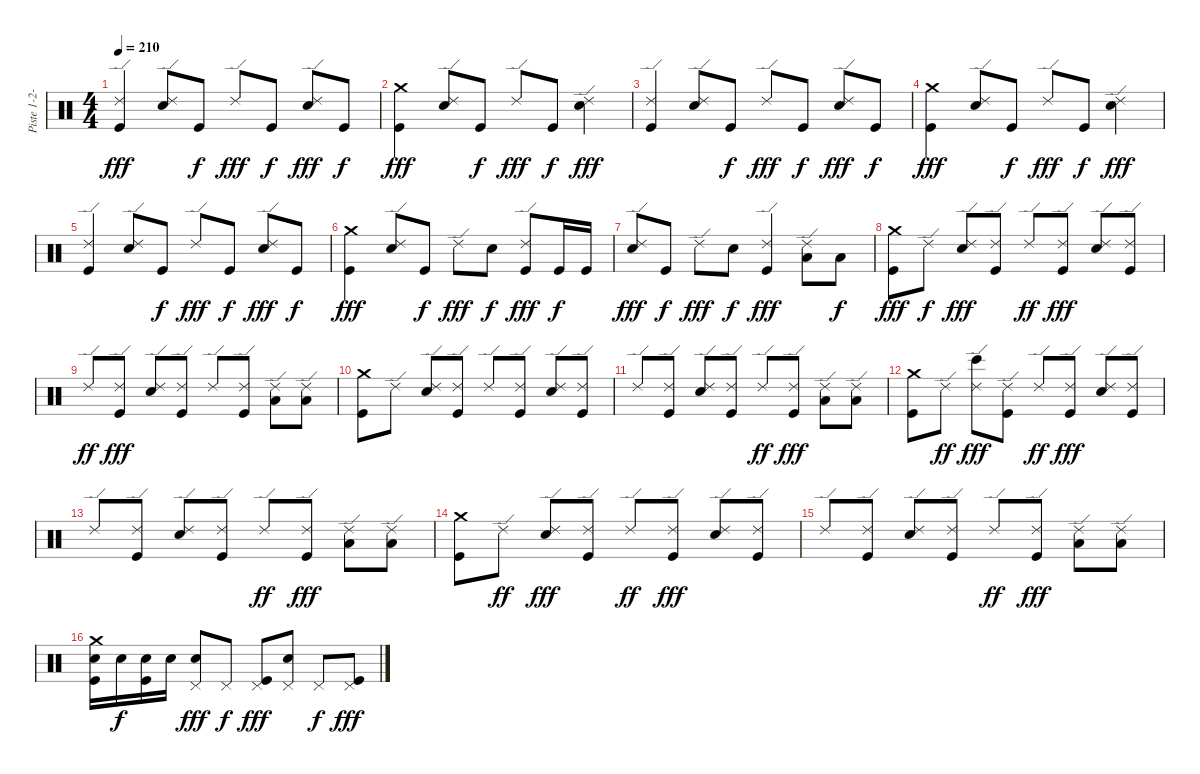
\track ("Piste 1-2-3-4" "Piste 1-2-") {instrument percussion}
\staff {score}
\articulation defaults
\ts (4 4)
\tempo 210
\clef neutral
\ks c
("Ride (edge) 2" "Kick (hit)").4{dy fff} ("Ride (edge) 2" "Snare (hit) 2").8 "Kick (hit)".8{dy f} "Ride (edge) 2".8{dy fff} "Kick (hit)".8{dy f} ("Ride (edge) 2" "Snare (hit) 2").8{dy fff} "Kick (hit)".8{dy f} |
("Crash medium (hit)" "Kick (hit)").4{dy fff} ("Ride (edge) 2" "Snare (hit) 2").8 "Kick (hit)".8{dy f} "Ride (edge) 2".8{dy fff} "Kick (hit)".8{dy f} ("Ride (edge) 2" "Snare (hit) 2").4{dy fff} |
("Ride (edge) 2" "Kick (hit)").4 ("Ride (edge) 2" "Snare (hit) 2").8 "Kick (hit)".8{dy f} "Ride (edge) 2".8{dy fff} "Kick (hit)".8{dy f} ("Ride (edge) 2" "Snare (hit) 2").8{dy fff} "Kick (hit)".8{dy f} |
("Crash medium (hit)" "Kick (hit)").4{dy fff} ("Ride (edge) 2" "Snare (hit) 2").8 "Kick (hit)".8{dy f} "Ride (edge) 2".8{dy fff} "Kick (hit)".8{dy f} ("Ride (edge) 2" "Snare (hit) 2").4{dy fff} |
("Ride (edge) 2" "Kick (hit)").4 ("Ride (edge) 2" "Snare (hit) 2").8 "Kick (hit)".8{dy f} "Ride (edge) 2".8{dy fff} "Kick (hit)".8{dy f} ("Ride (edge) 2" "Snare (hit) 2").8{dy fff} "Kick (hit)".8{dy f} |
("Crash medium (hit)" "Kick (hit)").4{dy fff} ("Ride (edge) 2" "Snare (hit) 2").8 "Kick (hit)".8{dy f} "Ride (edge) 2".8{dy fff} "Snare (hit) 2".8{dy f} ("Ride (edge) 2" "Kick (hit)").8{dy fff} "Kick (hit)".16{dy f} "Kick (hit)".16 |
("Ride (edge) 2" "Snare (hit) 2").8{dy fff} "Kick (hit)".8{dy f} "Ride (edge) 2".8{dy fff} "Snare (hit) 2".8{dy f} ("Ride (edge) 2" "Kick (hit)").4{dy fff} ("Ride (edge) 2" "Low Tom (hit)").8 "Low Tom (hit)".8{dy f} |
("Crash medium (hit)" "Kick (hit)").8{dy fff} "Ride (edge) 2".8{dy f} ("Ride (edge) 2" "Snare (hit) 2").8{dy fff} ("Ride (edge) 2" "Kick (hit)").8 "Ride (edge) 2".8{dy ff} ("Ride (edge) 2" "Kick (hit)").8{dy fff} ("Ride (edge) 2" "Snare (hit) 2").8 ("Ride (edge) 2" "Kick (hit)").8 |
"Ride (edge) 2".8{dy ff} ("Ride (edge) 2" "Kick (hit)").8{dy fff} ("Ride (edge) 2" "Snare (hit) 2").8 ("Ride (edge) 2" "Kick (hit)").8 "Ride (edge) 2".8 ("Ride (edge) 2" "Kick (hit)").8 ("Ride (edge) 2" "Low Tom (hit)").8 ("Ride (edge) 2" "Low Tom (hit)").8 |
("Crash medium (hit)" "Kick (hit)").8 "Ride (edge) 2".8 ("Ride (edge) 2" "Snare (hit) 2").8 ("Ride (edge) 2" "Kick (hit)").8 "Ride (edge) 2".8 ("Ride (edge) 2" "Kick (hit)").8 ("Ride (edge) 2" "Snare (hit) 2").8 ("Ride (edge) 2" "Kick (hit)").8 |
"Ride (edge) 2".8 ("Ride (edge) 2" "Kick (hit)").8 ("Ride (edge) 2" "Snare (hit) 2").8 ("Ride (edge) 2" "Kick (hit)").8 "Ride (edge) 2".8{dy ff} ("Ride (edge) 2" "Kick (hit)").8{dy fff} ("Ride (edge) 2" "Low Tom (hit)").8 ("Ride (edge) 2" "Low Tom (hit)").8 |
("Crash medium (hit)" "Kick (hit)").8 "Ride (edge) 2".8{dy ff} ("Ride (edge) 2" "Bongo High (hit)").8{dy fff} ("Ride (edge) 2" "Kick (hit)").8 "Ride (edge) 2".8{dy ff} ("Ride (edge) 2" "Kick (hit)").8{dy fff} ("Ride (edge) 2" "Snare (hit) 2").8 ("Ride (edge) 2" "Kick (hit)").8 |
"Ride (edge) 2".8 ("Ride (edge) 2" "Kick (hit)").8 ("Ride (edge) 2" "Snare (hit) 2").8 ("Ride (edge) 2" "Kick (hit)").8 "Ride (edge) 2".8{dy ff} ("Ride (edge) 2" "Kick (hit)").8{dy fff} ("Ride (edge) 2" "Low Tom (hit)").8 ("Ride (edge) 2" "Low Tom (hit)").8 |
("Crash medium (hit)" "Kick (hit)").8 "Ride (edge) 2".8{dy ff} ("Ride (edge) 2" "Snare (hit) 2").8{dy fff} ("Ride (edge) 2" "Kick (hit)").8 "Ride (edge) 2".8{dy ff} ("Ride (edge) 2" "Kick (hit)").8{dy fff} ("Ride (edge) 2" "Snare (hit) 2").8 ("Ride (edge) 2" "Kick (hit)").8 |
"Ride (edge) 2".8 ("Ride (edge) 2" "Kick (hit)").8 ("Ride (edge) 2" "Snare (hit) 2").8 ("Ride (edge) 2" "Kick (hit)").8 "Ride (edge) 2".8{dy ff} ("Ride (edge) 2" "Kick (hit)").8{dy fff} ("Ride (edge) 2" "Low Tom (hit)").8 ("Ride (edge) 2" "Low Tom (hit)").8 |
("Crash medium (hit)" "Snare (hit) 2" "Kick (hit)").16 "Snare (hit) 2".16{dy f} ("Snare (hit) 2" "Kick (hit)").16 "Snare (hit) 2".16 ("Pedal Hi-Hat (hit)" "Snare (hit) 2").8{dy fff} "Pedal Hi-Hat (hit)".8{dy f} ("Pedal Hi-Hat (hit)" "Kick (hit)").8{dy fff} ("Pedal Hi-Hat (hit)" "Snare (hit) 2").8 "Pedal Hi-Hat (hit)".8{dy f} ("Pedal Hi-Hat (hit)" "Kick (hit)").8{dy fff}
